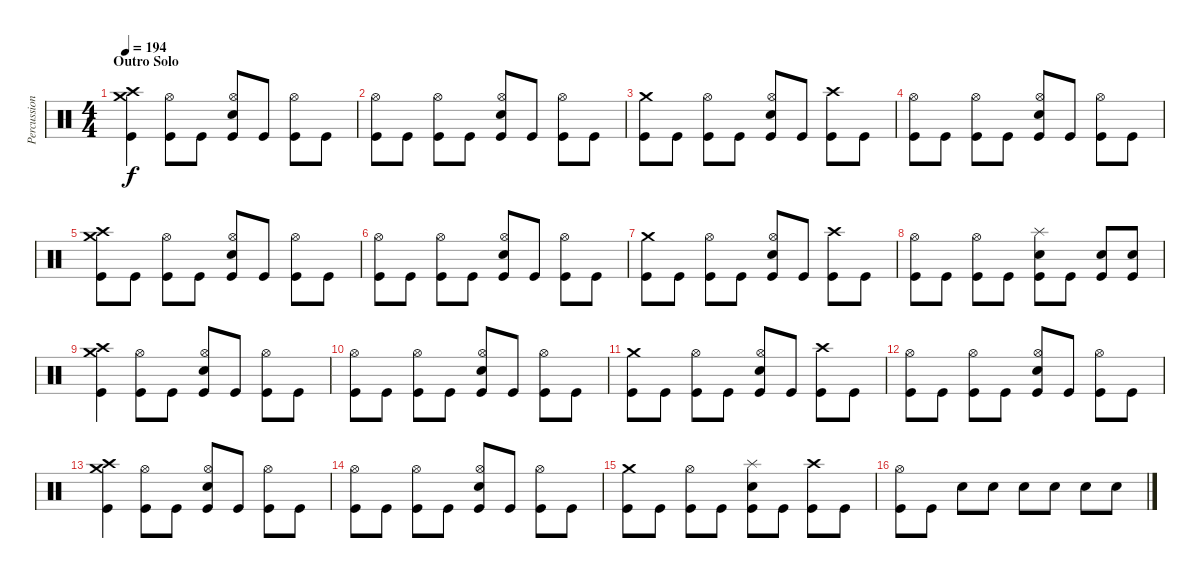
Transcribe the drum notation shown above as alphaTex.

\track ("Percussion" "Percussion") {instrument percussion}
\staff {score}
\articulation defaults
\ts (4 4)
\section ("" "Outro Solo")
\tempo 194
\clef neutral
\ks c
("Crash medium (hit)" "Crash high (hit)" "Kick (hit)").4{dy f} ("Hi-Hat (open)" "Kick (hit)").8 "Kick (hit)".8 ("Hi-Hat (open)" "Electric Snare (hit)" "Kick (hit)").8 "Kick (hit)".8 ("Hi-Hat (open)" "Kick (hit)").8 "Kick (hit)".8 |
("Hi-Hat (open)" "Kick (hit)").8 "Kick (hit)".8 ("Hi-Hat (open)" "Kick (hit)").8 "Kick (hit)".8 ("Hi-Hat (open)" "Electric Snare (hit)" "Kick (hit)").8 "Kick (hit)".8 ("Hi-Hat (open)" "Kick (hit)").8 "Kick (hit)".8 |
("Crash medium (hit)" "Kick (hit)").8 "Kick (hit)".8 ("Hi-Hat (open)" "Kick (hit)").8 "Kick (hit)".8 ("Hi-Hat (open)" "Electric Snare (hit)" "Kick (hit)").8 "Kick (hit)".8 ("Crash high (hit)" "Kick (hit)").8 "Kick (hit)".8 |
("Hi-Hat (open)" "Kick (hit)").8 "Kick (hit)".8 ("Hi-Hat (open)" "Kick (hit)").8 "Kick (hit)".8 ("Hi-Hat (open)" "Electric Snare (hit)" "Kick (hit)").8 "Kick (hit)".8 ("Hi-Hat (open)" "Kick (hit)").8 "Kick (hit)".8 |
("Crash medium (hit)" "Crash high (hit)" "Kick (hit)").8 "Kick (hit)".8 ("Hi-Hat (open)" "Kick (hit)").8 "Kick (hit)".8 ("Hi-Hat (open)" "Electric Snare (hit)" "Kick (hit)").8 "Kick (hit)".8 ("Hi-Hat (open)" "Kick (hit)").8 "Kick (hit)".8 |
("Hi-Hat (open)" "Kick (hit)").8 "Kick (hit)".8 ("Hi-Hat (open)" "Kick (hit)").8 "Kick (hit)".8 ("Hi-Hat (open)" "Electric Snare (hit)" "Kick (hit)").8 "Kick (hit)".8 ("Hi-Hat (open)" "Kick (hit)").8 "Kick (hit)".8 |
("Crash medium (hit)" "Kick (hit)").8 "Kick (hit)".8 ("Hi-Hat (open)" "Kick (hit)").8 "Kick (hit)".8 ("Hi-Hat (open)" "Electric Snare (hit)" "Kick (hit)").8 "Kick (hit)".8 ("Crash high (hit)" "Kick (hit)").8 "Kick (hit)".8 |
("Hi-Hat (open)" "Kick (hit)").8 "Kick (hit)".8 ("Hi-Hat (open)" "Kick (hit)").8 "Kick (hit)".8 ("Splash (hit)" "Electric Snare (hit)" "Kick (hit)").8 "Kick (hit)".8 ("Electric Snare (hit)" "Kick (hit)").8 ("Electric Snare (hit)" "Kick (hit)").8 |
("Crash medium (hit)" "Crash high (hit)" "Kick (hit)").4 ("Hi-Hat (open)" "Kick (hit)").8 "Kick (hit)".8 ("Hi-Hat (open)" "Electric Snare (hit)" "Kick (hit)").8 "Kick (hit)".8 ("Hi-Hat (open)" "Kick (hit)").8 "Kick (hit)".8 |
("Hi-Hat (open)" "Kick (hit)").8 "Kick (hit)".8 ("Hi-Hat (open)" "Kick (hit)").8 "Kick (hit)".8 ("Hi-Hat (open)" "Electric Snare (hit)" "Kick (hit)").8 "Kick (hit)".8 ("Hi-Hat (open)" "Kick (hit)").8 "Kick (hit)".8 |
("Crash medium (hit)" "Kick (hit)").8 "Kick (hit)".8 ("Hi-Hat (open)" "Kick (hit)").8 "Kick (hit)".8 ("Hi-Hat (open)" "Electric Snare (hit)" "Kick (hit)").8 "Kick (hit)".8 ("Crash high (hit)" "Kick (hit)").8 "Kick (hit)".8 |
("Hi-Hat (open)" "Kick (hit)").8 "Kick (hit)".8 ("Hi-Hat (open)" "Kick (hit)").8 "Kick (hit)".8 ("Hi-Hat (open)" "Electric Snare (hit)" "Kick (hit)").8 "Kick (hit)".8 ("Hi-Hat (open)" "Kick (hit)").8 "Kick (hit)".8 |
("Crash medium (hit)" "Crash high (hit)" "Kick (hit)").4 ("Hi-Hat (open)" "Kick (hit)").8 "Kick (hit)".8 ("Hi-Hat (open)" "Electric Snare (hit)" "Kick (hit)").8 "Kick (hit)".8 ("Hi-Hat (open)" "Kick (hit)").8 "Kick (hit)".8 |
("Hi-Hat (open)" "Kick (hit)").8 "Kick (hit)".8 ("Hi-Hat (open)" "Kick (hit)").8 "Kick (hit)".8 ("Hi-Hat (open)" "Electric Snare (hit)" "Kick (hit)").8 "Kick (hit)".8 ("Hi-Hat (open)" "Kick (hit)").8 "Kick (hit)".8 |
("Crash medium (hit)" "Kick (hit)").8 "Kick (hit)".8 ("Hi-Hat (open)" "Kick (hit)").8 "Kick (hit)".8 ("Splash (hit)" "Electric Snare (hit)" "Kick (hit)").8 "Kick (hit)".8 ("Crash high (hit)" "Kick (hit)").8 "Kick (hit)".8 |
("Hi-Hat (open)" "Kick (hit)").8 "Kick (hit)".8 "Electric Snare (hit)".8 "Electric Snare (hit)".8 "Electric Snare (hit)".8 "Electric Snare (hit)".8 "Electric Snare (hit)".8 "Electric Snare (hit)".8
